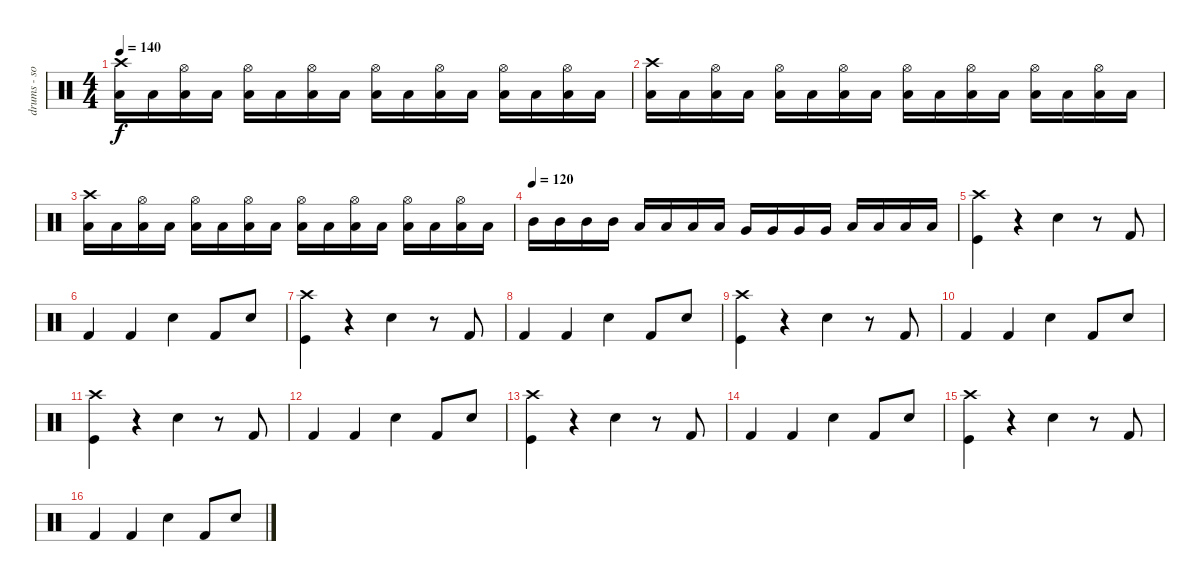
\track ("drums - someone maybe miki" "drums - so") {instrument percussion}
\staff {score}
\articulation defaults
\ts (4 4)
\tempo 140
\clef neutral
\ks c
("Crash high (hit)" "Low Floor Tom (hit)").16{dy f} "Low Floor Tom (hit)".16 ("Hi-Hat (open)" "Low Floor Tom (hit)").16 "Low Floor Tom (hit)".16 ("Hi-Hat (open)" "Low Tom (hit)").16 "Low Floor Tom (hit)".16 ("Hi-Hat (open)" "Low Floor Tom (hit)").16 "Low Floor Tom (hit)".16 ("Hi-Hat (open)" "Low Floor Tom (hit)").16 "Low Floor Tom (hit)".16 ("Hi-Hat (open)" "Low Floor Tom (hit)").16 "Low Floor Tom (hit)".16 ("Hi-Hat (open)" "Low Tom (hit)").16 "Low Floor Tom (hit)".16 ("Hi-Hat (open)" "Low Floor Tom (hit)").16 "Low Floor Tom (hit)".16 |
("Crash high (hit)" "Low Floor Tom (hit)").16 "Low Floor Tom (hit)".16 ("Hi-Hat (open)" "Low Floor Tom (hit)").16 "Low Floor Tom (hit)".16 ("Hi-Hat (open)" "Low Tom (hit)").16 "Low Floor Tom (hit)".16 ("Hi-Hat (open)" "Low Floor Tom (hit)").16 "Low Floor Tom (hit)".16 ("Hi-Hat (open)" "Low Floor Tom (hit)").16 "Low Floor Tom (hit)".16 ("Hi-Hat (open)" "Low Floor Tom (hit)").16 "Low Floor Tom (hit)".16 ("Hi-Hat (open)" "Low Tom (hit)").16 "Low Floor Tom (hit)".16 ("Hi-Hat (open)" "Low Floor Tom (hit)").16 "Low Floor Tom (hit)".16 |
("Crash high (hit)" "Low Floor Tom (hit)").16 "Low Floor Tom (hit)".16 ("Hi-Hat (open)" "Low Floor Tom (hit)").16 "Low Floor Tom (hit)".16 ("Hi-Hat (open)" "Low Tom (hit)").16 "Low Floor Tom (hit)".16 ("Hi-Hat (open)" "Low Floor Tom (hit)").16 "Low Floor Tom (hit)".16 ("Hi-Hat (open)" "Low Floor Tom (hit)").16 "Low Floor Tom (hit)".16 ("Hi-Hat (open)" "Low Floor Tom (hit)").16 "Low Floor Tom (hit)".16 ("Hi-Hat (open)" "Low Tom (hit)").16 "Low Floor Tom (hit)".16 ("Hi-Hat (open)" "Low Floor Tom (hit)").16 "Low Floor Tom (hit)".16 |
\tempo (120)
"Mid Tom (hit)".16 "Mid Tom (hit)".16 "Mid Tom (hit)".16 "Mid Tom (hit)".16 "Low Tom (hit)".16 "Low Tom (hit)".16 "Low Tom (hit)".16 "Low Tom (hit)".16 "Very Low Tom (hit)".16 "Very Low Tom (hit)".16 "Very Low Tom (hit)".16 "Very Low Tom (hit)".16 "Low Floor Tom (hit)".16 "Low Floor Tom (hit)".16 "Low Floor Tom (hit)".16 "Low Floor Tom (hit)".16 |
("Kick (hit)" "Crash high (hit)").4 r.4 "Snare (hit) 2".4 r.8 "Kick (hit) 2".8 |
"Kick (hit) 2".4 "Kick (hit) 2".4 "Snare (hit) 2".4 "Kick (hit) 2".8 "Snare (hit) 2".8 |
("Kick (hit)" "Crash high (hit)").4 r.4 "Snare (hit) 2".4 r.8 "Kick (hit) 2".8 |
"Kick (hit) 2".4 "Kick (hit) 2".4 "Snare (hit) 2".4 "Kick (hit) 2".8 "Snare (hit) 2".8 |
("Kick (hit)" "Crash high (hit)").4 r.4 "Snare (hit) 2".4 r.8 "Kick (hit) 2".8 |
"Kick (hit) 2".4 "Kick (hit) 2".4 "Snare (hit) 2".4 "Kick (hit) 2".8 "Snare (hit) 2".8 |
("Kick (hit)" "Crash high (hit)").4 r.4 "Snare (hit) 2".4 r.8 "Kick (hit) 2".8 |
"Kick (hit) 2".4 "Kick (hit) 2".4 "Snare (hit) 2".4 "Kick (hit) 2".8 "Snare (hit) 2".8 |
("Kick (hit)" "Crash high (hit)").4 r.4 "Snare (hit) 2".4 r.8 "Kick (hit) 2".8 |
"Kick (hit) 2".4 "Kick (hit) 2".4 "Snare (hit) 2".4 "Kick (hit) 2".8 "Snare (hit) 2".8 |
("Kick (hit)" "Crash high (hit)").4 r.4 "Snare (hit) 2".4 r.8 "Kick (hit) 2".8 |
"Kick (hit) 2".4 "Kick (hit) 2".4 "Snare (hit) 2".4 "Kick (hit) 2".8 "Snare (hit) 2".8
